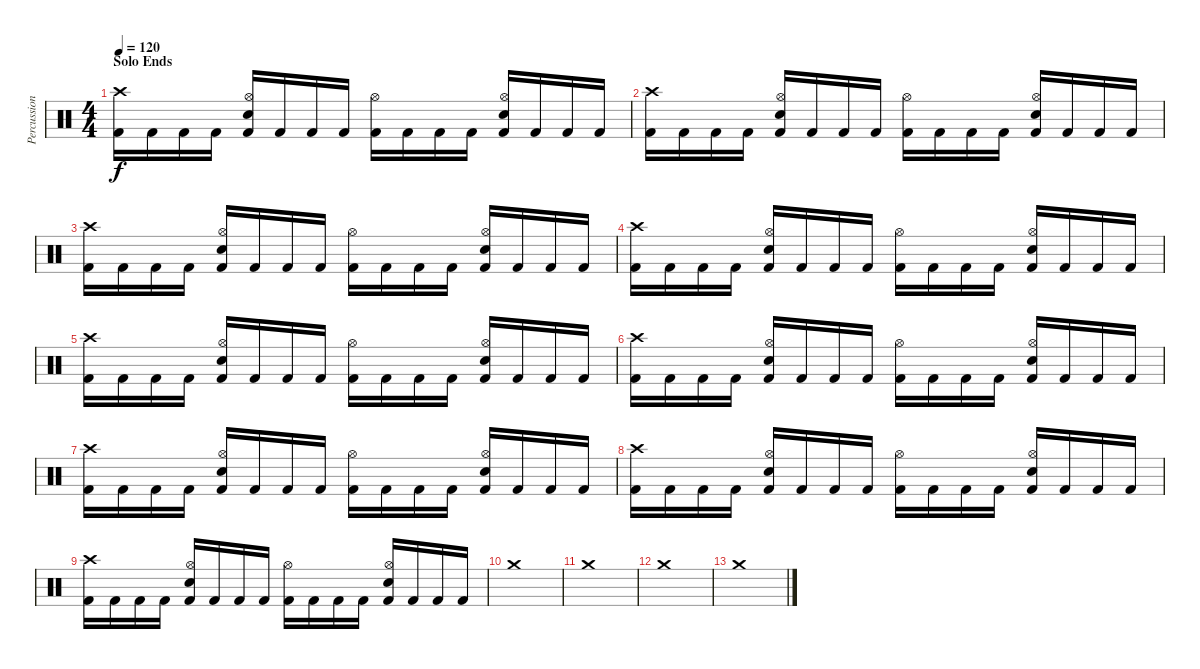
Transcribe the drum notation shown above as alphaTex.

\track ("Percussion" "Percussion") {instrument percussion}
\staff {score}
\articulation defaults
\ts (4 4)
\section ("" "Solo Ends")
\tempo 120
\clef neutral
\ks c
("Crash high (hit)" "Kick (hit) 2").16{dy f} "Kick (hit) 2".16 "Kick (hit) 2".16 "Kick (hit) 2".16 ("Hi-Hat (open)" "Electric Snare (hit)" "Kick (hit) 2").16 "Kick (hit) 2".16 "Kick (hit) 2".16 "Kick (hit) 2".16 ("Hi-Hat (open)" "Kick (hit) 2").16 "Kick (hit) 2".16 "Kick (hit) 2".16 "Kick (hit) 2".16 ("Hi-Hat (open)" "Electric Snare (hit)" "Kick (hit) 2").16 "Kick (hit) 2".16 "Kick (hit) 2".16 "Kick (hit) 2".16 |
("Crash high (hit)" "Kick (hit) 2").16 "Kick (hit) 2".16 "Kick (hit) 2".16 "Kick (hit) 2".16 ("Hi-Hat (open)" "Electric Snare (hit)" "Kick (hit) 2").16 "Kick (hit) 2".16 "Kick (hit) 2".16 "Kick (hit) 2".16 ("Hi-Hat (open)" "Kick (hit) 2").16 "Kick (hit) 2".16 "Kick (hit) 2".16 "Kick (hit) 2".16 ("Hi-Hat (open)" "Electric Snare (hit)" "Kick (hit) 2").16 "Kick (hit) 2".16 "Kick (hit) 2".16 "Kick (hit) 2".16 |
("Crash high (hit)" "Kick (hit) 2").16 "Kick (hit) 2".16 "Kick (hit) 2".16 "Kick (hit) 2".16 ("Hi-Hat (open)" "Electric Snare (hit)" "Kick (hit) 2").16 "Kick (hit) 2".16 "Kick (hit) 2".16 "Kick (hit) 2".16 ("Hi-Hat (open)" "Kick (hit) 2").16 "Kick (hit) 2".16 "Kick (hit) 2".16 "Kick (hit) 2".16 ("Hi-Hat (open)" "Electric Snare (hit)" "Kick (hit) 2").16 "Kick (hit) 2".16 "Kick (hit) 2".16 "Kick (hit) 2".16 |
("Crash high (hit)" "Kick (hit) 2").16 "Kick (hit) 2".16 "Kick (hit) 2".16 "Kick (hit) 2".16 ("Hi-Hat (open)" "Electric Snare (hit)" "Kick (hit) 2").16 "Kick (hit) 2".16 "Kick (hit) 2".16 "Kick (hit) 2".16 ("Hi-Hat (open)" "Kick (hit) 2").16 "Kick (hit) 2".16 "Kick (hit) 2".16 "Kick (hit) 2".16 ("Hi-Hat (open)" "Electric Snare (hit)" "Kick (hit) 2").16 "Kick (hit) 2".16 "Kick (hit) 2".16 "Kick (hit) 2".16 |
("Crash high (hit)" "Kick (hit) 2").16 "Kick (hit) 2".16 "Kick (hit) 2".16 "Kick (hit) 2".16 ("Hi-Hat (open)" "Electric Snare (hit)" "Kick (hit) 2").16 "Kick (hit) 2".16 "Kick (hit) 2".16 "Kick (hit) 2".16 ("Hi-Hat (open)" "Kick (hit) 2").16 "Kick (hit) 2".16 "Kick (hit) 2".16 "Kick (hit) 2".16 ("Hi-Hat (open)" "Electric Snare (hit)" "Kick (hit) 2").16 "Kick (hit) 2".16 "Kick (hit) 2".16 "Kick (hit) 2".16 |
("Crash high (hit)" "Kick (hit) 2").16 "Kick (hit) 2".16 "Kick (hit) 2".16 "Kick (hit) 2".16 ("Hi-Hat (open)" "Electric Snare (hit)" "Kick (hit) 2").16 "Kick (hit) 2".16 "Kick (hit) 2".16 "Kick (hit) 2".16 ("Hi-Hat (open)" "Kick (hit) 2").16 "Kick (hit) 2".16 "Kick (hit) 2".16 "Kick (hit) 2".16 ("Hi-Hat (open)" "Electric Snare (hit)" "Kick (hit) 2").16 "Kick (hit) 2".16 "Kick (hit) 2".16 "Kick (hit) 2".16 |
("Crash high (hit)" "Kick (hit) 2").16 "Kick (hit) 2".16 "Kick (hit) 2".16 "Kick (hit) 2".16 ("Hi-Hat (open)" "Electric Snare (hit)" "Kick (hit) 2").16 "Kick (hit) 2".16 "Kick (hit) 2".16 "Kick (hit) 2".16 ("Hi-Hat (open)" "Kick (hit) 2").16 "Kick (hit) 2".16 "Kick (hit) 2".16 "Kick (hit) 2".16 ("Hi-Hat (open)" "Electric Snare (hit)" "Kick (hit) 2").16 "Kick (hit) 2".16 "Kick (hit) 2".16 "Kick (hit) 2".16 |
("Crash high (hit)" "Kick (hit) 2").16 "Kick (hit) 2".16 "Kick (hit) 2".16 "Kick (hit) 2".16 ("Hi-Hat (open)" "Electric Snare (hit)" "Kick (hit) 2").16 "Kick (hit) 2".16 "Kick (hit) 2".16 "Kick (hit) 2".16 ("Hi-Hat (open)" "Kick (hit) 2").16 "Kick (hit) 2".16 "Kick (hit) 2".16 "Kick (hit) 2".16 ("Hi-Hat (open)" "Electric Snare (hit)" "Kick (hit) 2").16 "Kick (hit) 2".16 "Kick (hit) 2".16 "Kick (hit) 2".16 |
("Crash high (hit)" "Kick (hit) 2").16 "Kick (hit) 2".16 "Kick (hit) 2".16 "Kick (hit) 2".16 ("Hi-Hat (open)" "Electric Snare (hit)" "Kick (hit) 2").16 "Kick (hit) 2".16 "Kick (hit) 2".16 "Kick (hit) 2".16 ("Hi-Hat (open)" "Kick (hit) 2").16 "Kick (hit) 2".16 "Kick (hit) 2".16 "Kick (hit) 2".16 ("Hi-Hat (open)" "Electric Snare (hit)" "Kick (hit) 2").16 "Kick (hit) 2".16 "Kick (hit) 2".16 "Kick (hit) 2".16 |
"Crash medium (hit)".1 |
"Crash medium (hit)".1 |
"Crash medium (hit)".1 |
"Crash medium (hit)".1
